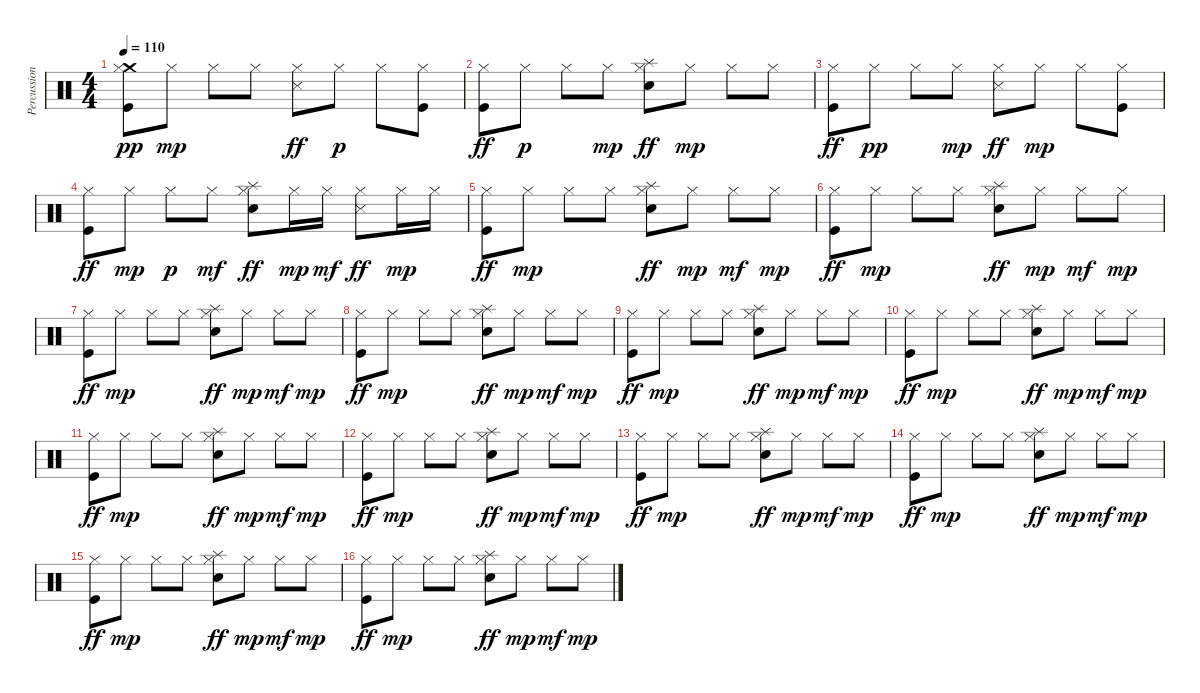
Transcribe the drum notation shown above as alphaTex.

\track ("Percussions" "Percussion") {instrument percussion}
\staff {score}
\articulation defaults
\ts (4 4)
\tempo 110
\clef neutral
\ks c
("Kick (hit)" "Crash medium (hit)" "Hi-Hat (closed)").8{dy pp} "Hi-Hat (closed)".8{dy mp} "Hi-Hat (closed)".8 "Hi-Hat (closed)".8 ("Snare (side stick) 3" "Hi-Hat (closed)").8{dy ff} "Hi-Hat (closed)".8{dy p} "Hi-Hat (closed)".8 ("Kick (hit)" "Hi-Hat (closed)").8 |
("Kick (hit)" "Hi-Hat (closed)").8{dy ff} "Hi-Hat (closed)".8{dy p} "Hi-Hat (closed)".8 "Hi-Hat (closed)".8{dy mp} ("Snare (hit) 2" "Splash (hit)" "Hi-Hat (closed)").8{dy ff} "Hi-Hat (closed)".8{dy mp} "Hi-Hat (closed)".8 "Hi-Hat (closed)".8 |
("Kick (hit)" "Hi-Hat (closed)").8{dy ff} "Hi-Hat (closed)".8{dy pp} "Hi-Hat (closed)".8 "Hi-Hat (closed)".8{dy mp} ("Snare (side stick) 3" "Hi-Hat (closed)").8{dy ff} "Hi-Hat (closed)".8{dy mp} "Hi-Hat (closed)".8 ("Kick (hit)" "Hi-Hat (closed)").8 |
("Kick (hit)" "Hi-Hat (closed)").8{dy ff} "Hi-Hat (closed)".8{dy mp} "Hi-Hat (closed)".8{dy p} "Hi-Hat (closed)".8{dy mf} ("Hi-Hat (closed)" "Splash (hit)" "Snare (hit) 2").8{dy ff} "Hi-Hat (closed)".16{dy mp} "Hi-Hat (closed)".16{dy mf} ("Hi-Hat (closed)" "Snare (side stick) 3").8{dy ff} "Hi-Hat (closed)".16{dy mp} "Hi-Hat (closed)".16 |
("Kick (hit)" "Hi-Hat (closed)").8{dy ff} "Hi-Hat (closed)".8{dy mp} "Hi-Hat (closed)".8 "Hi-Hat (closed)".8 ("Snare (hit) 2" "Splash (hit)" "Hi-Hat (closed)").8{dy ff} "Hi-Hat (closed)".8{dy mp} "Hi-Hat (closed)".8{dy mf} "Hi-Hat (closed)".8{dy mp} |
("Kick (hit)" "Hi-Hat (closed)").8{dy ff} "Hi-Hat (closed)".8{dy mp} "Hi-Hat (closed)".8 "Hi-Hat (closed)".8 ("Snare (hit) 2" "Splash (hit)" "Hi-Hat (closed)").8{dy ff} "Hi-Hat (closed)".8{dy mp} "Hi-Hat (closed)".8{dy mf} "Hi-Hat (closed)".8{dy mp} |
("Kick (hit)" "Hi-Hat (closed)").8{dy ff} "Hi-Hat (closed)".8{dy mp} "Hi-Hat (closed)".8 "Hi-Hat (closed)".8 ("Snare (hit) 2" "Splash (hit)" "Hi-Hat (closed)").8{dy ff} "Hi-Hat (closed)".8{dy mp} "Hi-Hat (closed)".8{dy mf} "Hi-Hat (closed)".8{dy mp} |
("Kick (hit)" "Hi-Hat (closed)").8{dy ff} "Hi-Hat (closed)".8{dy mp} "Hi-Hat (closed)".8 "Hi-Hat (closed)".8 ("Snare (hit) 2" "Splash (hit)" "Hi-Hat (closed)").8{dy ff} "Hi-Hat (closed)".8{dy mp} "Hi-Hat (closed)".8{dy mf} "Hi-Hat (closed)".8{dy mp} |
("Kick (hit)" "Hi-Hat (closed)").8{dy ff} "Hi-Hat (closed)".8{dy mp} "Hi-Hat (closed)".8 "Hi-Hat (closed)".8 ("Snare (hit) 2" "Splash (hit)" "Hi-Hat (closed)").8{dy ff} "Hi-Hat (closed)".8{dy mp} "Hi-Hat (closed)".8{dy mf} "Hi-Hat (closed)".8{dy mp} |
("Kick (hit)" "Hi-Hat (closed)").8{dy ff} "Hi-Hat (closed)".8{dy mp} "Hi-Hat (closed)".8 "Hi-Hat (closed)".8 ("Snare (hit) 2" "Splash (hit)" "Hi-Hat (closed)").8{dy ff} "Hi-Hat (closed)".8{dy mp} "Hi-Hat (closed)".8{dy mf} "Hi-Hat (closed)".8{dy mp} |
("Kick (hit)" "Hi-Hat (closed)").8{dy ff} "Hi-Hat (closed)".8{dy mp} "Hi-Hat (closed)".8 "Hi-Hat (closed)".8 ("Snare (hit) 2" "Splash (hit)" "Hi-Hat (closed)").8{dy ff} "Hi-Hat (closed)".8{dy mp} "Hi-Hat (closed)".8{dy mf} "Hi-Hat (closed)".8{dy mp} |
("Kick (hit)" "Hi-Hat (closed)").8{dy ff} "Hi-Hat (closed)".8{dy mp} "Hi-Hat (closed)".8 "Hi-Hat (closed)".8 ("Snare (hit) 2" "Splash (hit)" "Hi-Hat (closed)").8{dy ff} "Hi-Hat (closed)".8{dy mp} "Hi-Hat (closed)".8{dy mf} "Hi-Hat (closed)".8{dy mp} |
("Kick (hit)" "Hi-Hat (closed)").8{dy ff} "Hi-Hat (closed)".8{dy mp} "Hi-Hat (closed)".8 "Hi-Hat (closed)".8 ("Snare (hit) 2" "Splash (hit)" "Hi-Hat (closed)").8{dy ff} "Hi-Hat (closed)".8{dy mp} "Hi-Hat (closed)".8{dy mf} "Hi-Hat (closed)".8{dy mp} |
("Kick (hit)" "Hi-Hat (closed)").8{dy ff} "Hi-Hat (closed)".8{dy mp} "Hi-Hat (closed)".8 "Hi-Hat (closed)".8 ("Snare (hit) 2" "Splash (hit)" "Hi-Hat (closed)").8{dy ff} "Hi-Hat (closed)".8{dy mp} "Hi-Hat (closed)".8{dy mf} "Hi-Hat (closed)".8{dy mp} |
("Kick (hit)" "Hi-Hat (closed)").8{dy ff} "Hi-Hat (closed)".8{dy mp} "Hi-Hat (closed)".8 "Hi-Hat (closed)".8 ("Snare (hit) 2" "Splash (hit)" "Hi-Hat (closed)").8{dy ff} "Hi-Hat (closed)".8{dy mp} "Hi-Hat (closed)".8{dy mf} "Hi-Hat (closed)".8{dy mp} |
("Kick (hit)" "Hi-Hat (closed)").8{dy ff} "Hi-Hat (closed)".8{dy mp} "Hi-Hat (closed)".8 "Hi-Hat (closed)".8 ("Snare (hit) 2" "Splash (hit)" "Hi-Hat (closed)").8{dy ff} "Hi-Hat (closed)".8{dy mp} "Hi-Hat (closed)".8{dy mf} "Hi-Hat (closed)".8{dy mp}
